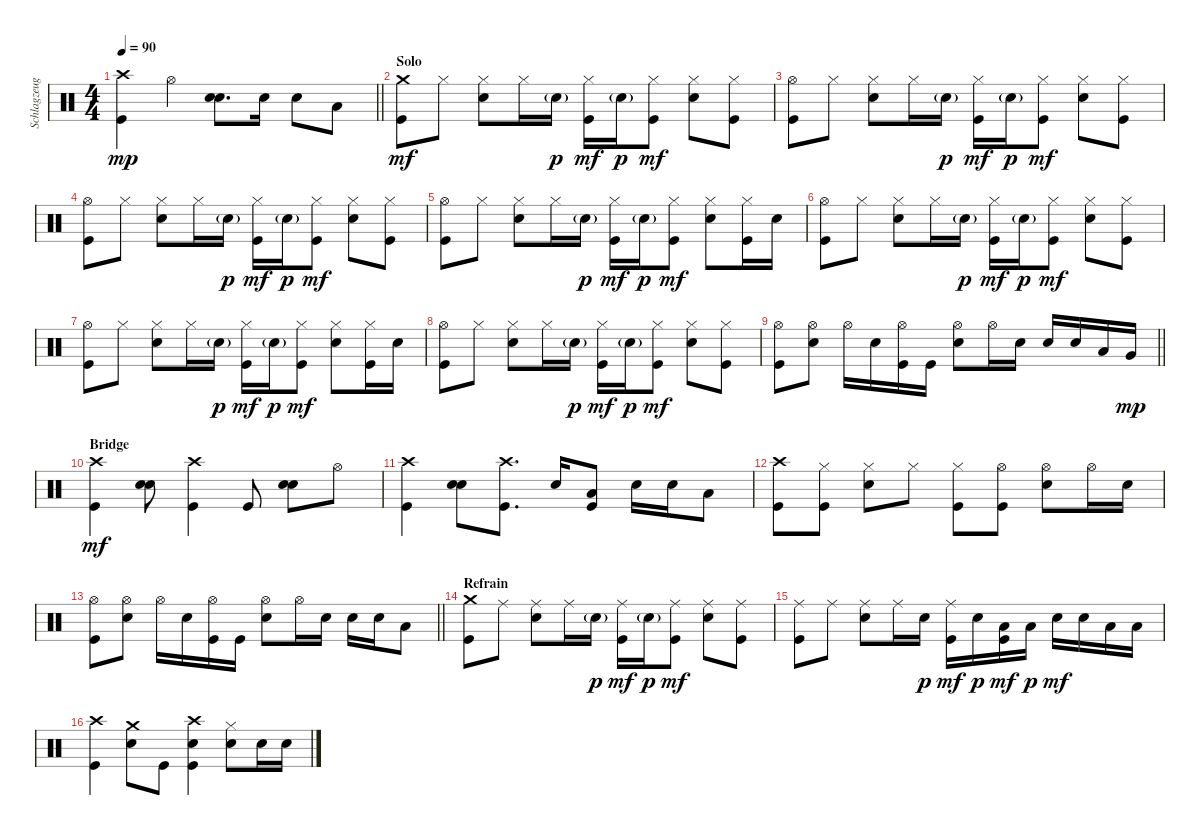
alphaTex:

\track ("Schlagzeug" "Schlagzeug") {instrument percussion}
\staff {score}
\articulation defaults
\ts (4 4)
\tempo 90
\clef neutral
\barLineRight lightlight
\ks c
("Crash high (hit)" "Kick (hit)").4{dy mp} "Hi-Hat (open)".4 ("Snare (hit) 2" "Snare (hit) 2").8{d} "Snare (hit) 2".16 "Snare (hit) 2".8 "Low Tom (hit)".8 |
\section ("" "Solo")
("Crash medium (hit)" "Kick (hit)").8{dy mf} "Hi-Hat (closed)".8 ("Hi-Hat (closed)" "Snare (hit) 2").8 "Hi-Hat (closed)".16 "Snare (hit) 2"{g}.16{dy p} ("Hi-Hat (closed)" "Kick (hit)").16{dy mf} "Snare (hit) 2"{g}.16{dy p} ("Hi-Hat (closed)" "Kick (hit)").8{dy mf} ("Hi-Hat (closed)" "Snare (hit) 2").8 ("Hi-Hat (closed)" "Kick (hit)").8 |
("Hi-Hat (open)" "Kick (hit)").8 "Hi-Hat (closed)".8 ("Hi-Hat (closed)" "Snare (hit) 2").8 "Hi-Hat (closed)".16 "Snare (hit) 2"{g}.16{dy p} ("Hi-Hat (closed)" "Kick (hit)").16{dy mf} "Snare (hit) 2"{g}.16{dy p} ("Hi-Hat (closed)" "Kick (hit)").8{dy mf} ("Hi-Hat (closed)" "Snare (hit) 2").8 ("Hi-Hat (closed)" "Kick (hit)").8 |
("Hi-Hat (open)" "Kick (hit)").8 "Hi-Hat (closed)".8 ("Hi-Hat (closed)" "Snare (hit) 2").8 "Hi-Hat (closed)".16 "Snare (hit) 2"{g}.16{dy p} ("Hi-Hat (closed)" "Kick (hit)").16{dy mf} "Snare (hit) 2"{g}.16{dy p} ("Hi-Hat (closed)" "Kick (hit)").8{dy mf} ("Hi-Hat (closed)" "Snare (hit) 2").8 ("Hi-Hat (closed)" "Kick (hit)").8 |
("Hi-Hat (open)" "Kick (hit)").8 "Hi-Hat (closed)".8 ("Hi-Hat (closed)" "Snare (hit) 2").8 "Hi-Hat (closed)".16 "Snare (hit) 2"{g}.16{dy p} ("Hi-Hat (closed)" "Kick (hit)").16{dy mf} "Snare (hit) 2"{g}.16{dy p} ("Hi-Hat (closed)" "Kick (hit)").8{dy mf} ("Hi-Hat (closed)" "Snare (hit) 2").8 ("Hi-Hat (closed)" "Kick (hit)").16 "Snare (hit) 2".16 |
("Hi-Hat (open)" "Kick (hit)").8 "Hi-Hat (closed)".8 ("Hi-Hat (closed)" "Snare (hit) 2").8 "Hi-Hat (closed)".16 "Snare (hit) 2"{g}.16{dy p} ("Hi-Hat (closed)" "Kick (hit)").16{dy mf} "Snare (hit) 2"{g}.16{dy p} ("Hi-Hat (closed)" "Kick (hit)").8{dy mf} ("Hi-Hat (closed)" "Snare (hit) 2").8 ("Hi-Hat (closed)" "Kick (hit)").8 |
("Hi-Hat (open)" "Kick (hit)").8 "Hi-Hat (closed)".8 ("Hi-Hat (closed)" "Snare (hit) 2").8 "Hi-Hat (closed)".16 "Snare (hit) 2"{g}.16{dy p} ("Hi-Hat (closed)" "Kick (hit)").16{dy mf} "Snare (hit) 2"{g}.16{dy p} ("Hi-Hat (closed)" "Kick (hit)").8{dy mf} ("Hi-Hat (closed)" "Snare (hit) 2").8 ("Hi-Hat (closed)" "Kick (hit)").16 "Snare (hit) 2".16 |
("Hi-Hat (open)" "Kick (hit)").8 "Hi-Hat (closed)".8 ("Hi-Hat (closed)" "Snare (hit) 2").8 "Hi-Hat (closed)".16 "Snare (hit) 2"{g}.16{dy p} ("Hi-Hat (closed)" "Kick (hit)").16{dy mf} "Snare (hit) 2"{g}.16{dy p} ("Hi-Hat (closed)" "Kick (hit)").8{dy mf} ("Hi-Hat (closed)" "Snare (hit) 2").8 ("Hi-Hat (closed)" "Kick (hit)").8 |
\barLineRight lightlight
("Hi-Hat (open)" "Kick (hit)").8 ("Hi-Hat (open)" "Snare (hit) 2").8 "Hi-Hat (open)".16 "Snare (hit) 2".16 ("Hi-Hat (open)" "Kick (hit)").16 "Kick (hit)".16 ("Hi-Hat (open)" "Snare (hit) 2").8 "Hi-Hat (open)".16 "Snare (hit) 2".16 "Snare (hit) 2".16 "Snare (hit) 2".16 "Low Tom (hit)".16 "Very Low Tom (hit)".16{dy mp} |
\section ("" "Bridge")
("Crash high (hit)" "Kick (hit)").4{dy mf} ("Snare (hit) 2" "Snare (hit) 2").8 ("Crash high (hit)" "Kick (hit)").4 "Kick (hit)".8 ("Snare (hit) 2" "Snare (hit) 2").8 "Hi-Hat (open)".8 |
("Crash high (hit)" "Kick (hit)").4 ("Snare (hit) 2" "Snare (hit) 2").8 ("Crash high (hit)" "Kick (hit)").8{d} "Snare (hit) 2".16 ("Low Tom (hit)" "Kick (hit)").8 "Snare (hit) 2".16 "Snare (hit) 2".16 "Low Tom (hit)".8 |
("Crash high (hit)" "Kick (hit)").8 ("Hi-Hat (closed)" "Kick (hit)").8 ("Hi-Hat (closed)" "Snare (hit) 2").8 "Hi-Hat (closed)".8 ("Hi-Hat (closed)" "Kick (hit)").8 ("Hi-Hat (open)" "Kick (hit)").8 ("Hi-Hat (open)" "Snare (hit) 2").8 "Hi-Hat (open)".16 "Snare (hit) 2".16 |
\barLineRight lightlight
("Hi-Hat (open)" "Kick (hit)").8 ("Hi-Hat (open)" "Snare (hit) 2").8 "Hi-Hat (open)".16 "Snare (hit) 2".16 ("Hi-Hat (open)" "Kick (hit)").16 "Kick (hit)".16 ("Hi-Hat (open)" "Snare (hit) 2").8 "Hi-Hat (open)".16 "Snare (hit) 2".16 "Snare (hit) 2".16 "Snare (hit) 2".16 "Low Tom (hit)".8 |
\section ("" "Refrain")
("Crash medium (hit)" "Kick (hit)").8 "Ride (middle)".8 ("Ride (middle)" "Snare (hit) 2").8 "Ride (middle)".16 "Snare (hit) 2"{g}.16{dy p} ("Ride (middle)" "Kick (hit)").16{dy mf} "Snare (hit) 2"{g}.16{dy p} ("Ride (middle)" "Kick (hit)").8{dy mf} ("Ride (middle)" "Snare (hit) 2").8 ("Ride (middle)" "Kick (hit)").8 |
("Ride (middle)" "Kick (hit)").8 "Ride (middle)".8 ("Ride (middle)" "Snare (hit) 2").8 "Ride (middle)".16 "Snare (hit) 2".16{dy p} ("Ride (middle)" "Kick (hit)").16{dy mf} "Snare (hit) 2".16{dy p} ("Low Tom (hit)" "Kick (hit)").16{dy mf} "Low Tom (hit)".16{dy p} "Snare (hit) 2".16{dy mf} "Snare (hit) 2".16 "Low Tom (hit)".16 "Low Tom (hit)".16 |
("Crash high (hit)" "Kick (hit)").4 ("Crash medium (hit)" "Snare (hit) 2").8 "Kick (hit)".8 ("Crash high (hit)" "Snare (hit) 2" "Kick (hit)").4 ("Hi-Hat (closed)" "Snare (hit) 2").8 "Snare (hit) 2".16 "Snare (hit) 2".16
